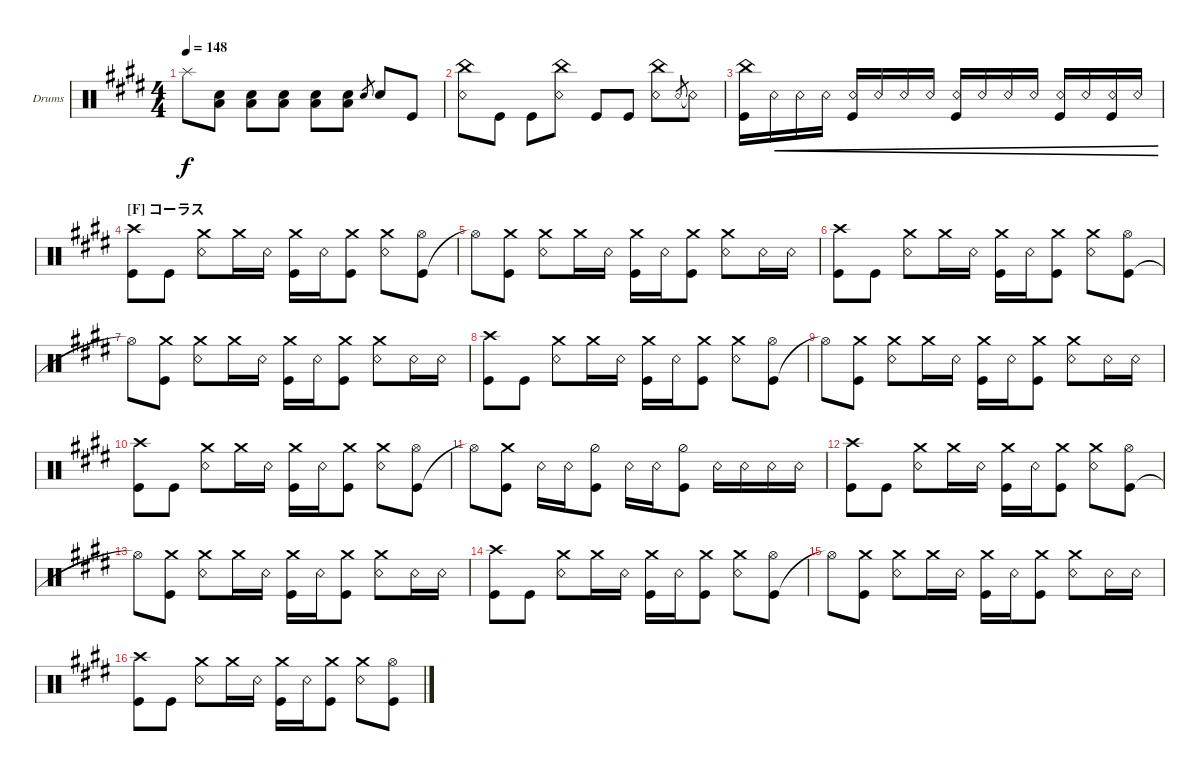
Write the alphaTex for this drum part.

\bracketExtendMode groupsimilarinstruments
\firstSystemTrackNameOrientation horizontal
\otherSystemsTrackNameOrientation horizontal
\track ("Ichigo" "Drums") {instrument percussion}
\staff {score}
\articulation defaults
\ts (4 4)
\tempo 148
\clef neutral
\ks e "Splash (hit)"{t}.8{dy f}
("Snare (hit) 2" "Low Tom (hit)").8 ("Snare (hit) 2" "Low Tom (hit)").8 ("Snare (hit) 2" "Low Tom (hit)").8 ("Snare (hit) 2" "Low Tom (hit)").8 ("Snare (hit) 2" "Low Tom (hit)").8 "Snare (hit) 2".8{gr} "Snare (hit) 2".8 "Kick (hit)".8 |
("China (hit)" "Snare (rim shot)").8 "Kick (hit)".8 "Kick (hit)".8 ("Snare (rim shot)" "China (hit)").8 "Kick (hit)".8 "Kick (hit)".8 ("Snare (rim shot)" "China (hit)").8 "Snare (rim shot)".8{gr} "Snare (rim shot)"{t}.8 |
("China (hit)" "Kick (hit)").16 "Snare (rim shot)".16{cre} "Snare (rim shot)".16{cre} "Snare (rim shot)".16{cre} ("Snare (rim shot)" "Kick (hit)").16{cre} "Snare (rim shot)".16{cre} "Snare (rim shot)".16{cre} "Snare (rim shot)".16{cre} ("Snare (rim shot)" "Kick (hit)").16{cre} "Snare (rim shot)".16{cre} "Snare (rim shot)".16{cre} "Snare (rim shot)".16{cre} ("Snare (rim shot)" "Kick (hit)").16{cre} "Snare (rim shot)".16{cre} ("Snare (rim shot)" "Kick (hit)").16{cre} "Snare (rim shot)".16{cre} |
\section ("F" "コーラス")
("Kick (hit)" "Crash high (hit)").8 "Kick (hit)".8 ("Snare (rim shot)" "Crash medium (hit)").8 "Crash medium (hit)".16 "Snare (rim shot)".16 ("Kick (hit)" "Crash medium (hit)").16 "Snare (rim shot)".16 ("Kick (hit)" "Crash medium (hit)").8 ("Snare (rim shot)" "Crash medium (hit)").8 ("Kick (hit)" "Hi-Hat (open)").8 |
"Hi-Hat (open)"{t}.8 ("Kick (hit)" "Crash medium (hit)").8 ("Snare (rim shot)" "Crash medium (hit)").8 "Crash medium (hit)".16 "Snare (rim shot)".16 ("Kick (hit)" "Crash medium (hit)").16 "Snare (rim shot)".16 ("Kick (hit)" "Crash medium (hit)").8 ("Snare (rim shot)" "Crash medium (hit)").8 "Snare (rim shot)".16 "Snare (rim shot)".16 |
("Kick (hit)" "Crash high (hit)").8 "Kick (hit)".8 ("Snare (rim shot)" "Crash medium (hit)").8 "Crash medium (hit)".16 "Snare (rim shot)".16 ("Kick (hit)" "Crash medium (hit)").16 "Snare (rim shot)".16 ("Kick (hit)" "Crash medium (hit)").8 ("Snare (rim shot)" "Crash medium (hit)").8 ("Kick (hit)" "Hi-Hat (open)").8 |
"Hi-Hat (open)"{t}.8 ("Kick (hit)" "Crash medium (hit)").8 ("Snare (rim shot)" "Crash medium (hit)").8 "Crash medium (hit)".16 "Snare (rim shot)".16 ("Kick (hit)" "Crash medium (hit)").16 "Snare (rim shot)".16 ("Kick (hit)" "Crash medium (hit)").8 ("Snare (rim shot)" "Crash medium (hit)").8 "Snare (rim shot)".16 "Snare (rim shot)".16 |
("Kick (hit)" "Crash high (hit)").8 "Kick (hit)".8 ("Snare (rim shot)" "Crash medium (hit)").8 "Crash medium (hit)".16 "Snare (rim shot)".16 ("Kick (hit)" "Crash medium (hit)").16 "Snare (rim shot)".16 ("Kick (hit)" "Crash medium (hit)").8 ("Snare (rim shot)" "Crash medium (hit)").8 ("Kick (hit)" "Hi-Hat (open)").8 |
"Hi-Hat (open)"{t}.8 ("Kick (hit)" "Crash medium (hit)").8 ("Snare (rim shot)" "Crash medium (hit)").8 "Crash medium (hit)".16 "Snare (rim shot)".16 ("Kick (hit)" "Crash medium (hit)").16 "Snare (rim shot)".16 ("Kick (hit)" "Crash medium (hit)").8 ("Snare (rim shot)" "Crash medium (hit)").8 "Snare (rim shot)".16 "Snare (rim shot)".16 |
("Kick (hit)" "Crash high (hit)").8 "Kick (hit)".8 ("Snare (rim shot)" "Crash medium (hit)").8 "Crash medium (hit)".16 "Snare (rim shot)".16 ("Kick (hit)" "Crash medium (hit)").16 "Snare (rim shot)".16 ("Kick (hit)" "Crash medium (hit)").8 ("Snare (rim shot)" "Crash medium (hit)").8 ("Kick (hit)" "Hi-Hat (open)").8 |
"Hi-Hat (open)"{t}.8 ("Kick (hit)" "Crash medium (hit)").8 "Snare (rim shot)".16 "Snare (rim shot)".16 ("Kick (hit)" "Hi-Hat (half)").8 "Snare (rim shot)".16 "Snare (rim shot)".16 ("Kick (hit)" "Hi-Hat (half)").8 "Snare (rim shot)".16 "Snare (rim shot)".16 "Snare (rim shot)".16 "Snare (rim shot)".16 |
("Kick (hit)" "Crash high (hit)").8 "Kick (hit)".8 ("Snare (rim shot)" "Crash medium (hit)").8 "Crash medium (hit)".16 "Snare (rim shot)".16 ("Kick (hit)" "Crash medium (hit)").16 "Snare (rim shot)".16 ("Kick (hit)" "Crash medium (hit)").8 ("Snare (rim shot)" "Crash medium (hit)").8 ("Kick (hit)" "Hi-Hat (open)").8 |
"Hi-Hat (open)"{t}.8 ("Kick (hit)" "Crash medium (hit)").8 ("Snare (rim shot)" "Crash medium (hit)").8 "Crash medium (hit)".16 "Snare (rim shot)".16 ("Kick (hit)" "Crash medium (hit)").16 "Snare (rim shot)".16 ("Kick (hit)" "Crash medium (hit)").8 ("Snare (rim shot)" "Crash medium (hit)").8 "Snare (rim shot)".16 "Snare (rim shot)".16 |
("Kick (hit)" "Crash high (hit)").8 "Kick (hit)".8 ("Snare (rim shot)" "Crash medium (hit)").8 "Crash medium (hit)".16 "Snare (rim shot)".16 ("Kick (hit)" "Crash medium (hit)").16 "Snare (rim shot)".16 ("Kick (hit)" "Crash medium (hit)").8 ("Snare (rim shot)" "Crash medium (hit)").8 ("Kick (hit)" "Hi-Hat (open)").8 |
"Hi-Hat (open)"{t}.8 ("Kick (hit)" "Crash medium (hit)").8 ("Snare (rim shot)" "Crash medium (hit)").8 "Crash medium (hit)".16 "Snare (rim shot)".16 ("Kick (hit)" "Crash medium (hit)").16 "Snare (rim shot)".16 ("Kick (hit)" "Crash medium (hit)").8 ("Snare (rim shot)" "Crash medium (hit)").8 "Snare (rim shot)".16 "Snare (rim shot)".16 |
("Kick (hit)" "Crash high (hit)").8 "Kick (hit)".8 ("Snare (rim shot)" "Crash medium (hit)").8 "Crash medium (hit)".16 "Snare (rim shot)".16 ("Kick (hit)" "Crash medium (hit)").16 "Snare (rim shot)".16 ("Kick (hit)" "Crash medium (hit)").8 ("Snare (rim shot)" "Crash medium (hit)").8 ("Kick (hit)" "Hi-Hat (open)").8
